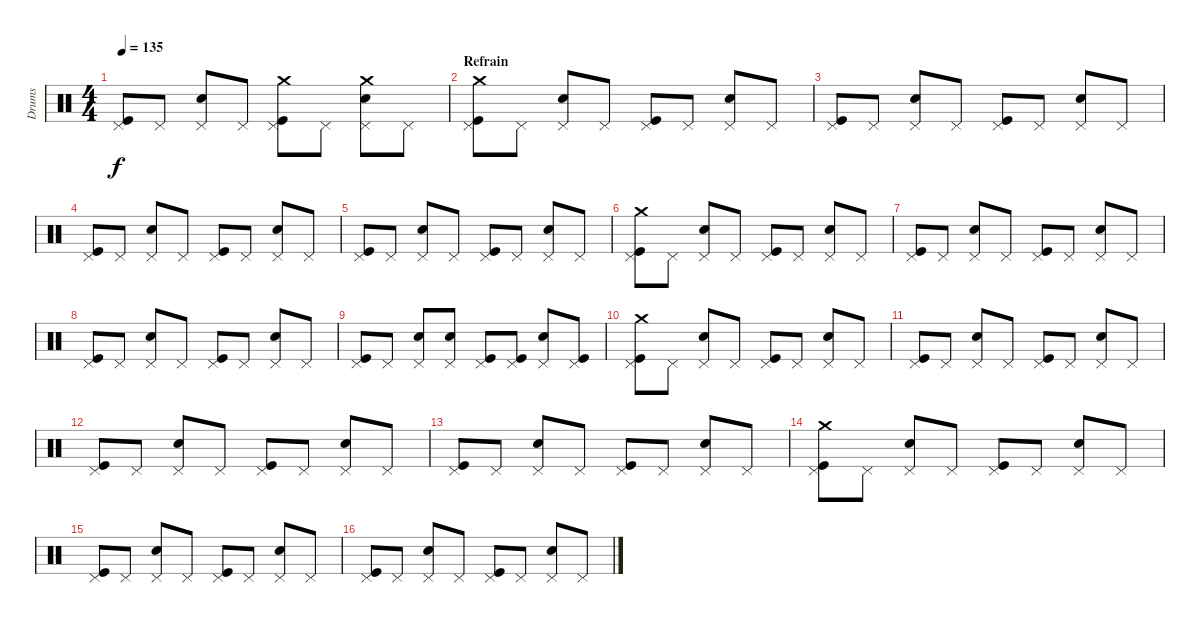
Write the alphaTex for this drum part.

\track ("Drums" "Drums") {instrument percussion}
\staff {score}
\articulation defaults
\ts (4 4)
\tempo 135
\clef neutral
\ks c
("Pedal Hi-Hat (hit)" "Kick (hit)").8{dy f} "Pedal Hi-Hat (hit)".8 ("Pedal Hi-Hat (hit)" "Electric Snare (hit)").8 "Pedal Hi-Hat (hit)".8 ("Pedal Hi-Hat (hit)" "Kick (hit)" "Crash medium (hit)").8 "Pedal Hi-Hat (hit)".8 ("Pedal Hi-Hat (hit)" "Electric Snare (hit)" "Crash medium (hit)").8 "Pedal Hi-Hat (hit)".8 |
\section ("" "Refrain")
("Pedal Hi-Hat (hit)" "Kick (hit)" "Crash medium (hit)").8 "Pedal Hi-Hat (hit)".8 ("Pedal Hi-Hat (hit)" "Electric Snare (hit)").8 "Pedal Hi-Hat (hit)".8 ("Pedal Hi-Hat (hit)" "Kick (hit)").8 "Pedal Hi-Hat (hit)".8 ("Pedal Hi-Hat (hit)" "Electric Snare (hit)").8 "Pedal Hi-Hat (hit)".8 |
("Pedal Hi-Hat (hit)" "Kick (hit)").8 "Pedal Hi-Hat (hit)".8 ("Pedal Hi-Hat (hit)" "Electric Snare (hit)").8 "Pedal Hi-Hat (hit)".8 ("Pedal Hi-Hat (hit)" "Kick (hit)").8 "Pedal Hi-Hat (hit)".8 ("Pedal Hi-Hat (hit)" "Electric Snare (hit)").8 "Pedal Hi-Hat (hit)".8 |
("Pedal Hi-Hat (hit)" "Kick (hit)").8 "Pedal Hi-Hat (hit)".8 ("Pedal Hi-Hat (hit)" "Electric Snare (hit)").8 "Pedal Hi-Hat (hit)".8 ("Pedal Hi-Hat (hit)" "Kick (hit)").8 "Pedal Hi-Hat (hit)".8 ("Pedal Hi-Hat (hit)" "Electric Snare (hit)").8 "Pedal Hi-Hat (hit)".8 |
("Pedal Hi-Hat (hit)" "Kick (hit)").8 "Pedal Hi-Hat (hit)".8 ("Pedal Hi-Hat (hit)" "Electric Snare (hit)").8 "Pedal Hi-Hat (hit)".8 ("Pedal Hi-Hat (hit)" "Kick (hit)").8 "Pedal Hi-Hat (hit)".8 ("Pedal Hi-Hat (hit)" "Electric Snare (hit)").8 "Pedal Hi-Hat (hit)".8 |
("Pedal Hi-Hat (hit)" "Kick (hit)" "Crash medium (hit)").8 "Pedal Hi-Hat (hit)".8 ("Pedal Hi-Hat (hit)" "Electric Snare (hit)").8 "Pedal Hi-Hat (hit)".8 ("Pedal Hi-Hat (hit)" "Kick (hit)").8 "Pedal Hi-Hat (hit)".8 ("Pedal Hi-Hat (hit)" "Electric Snare (hit)").8 "Pedal Hi-Hat (hit)".8 |
("Pedal Hi-Hat (hit)" "Kick (hit)").8 "Pedal Hi-Hat (hit)".8 ("Pedal Hi-Hat (hit)" "Electric Snare (hit)").8 "Pedal Hi-Hat (hit)".8 ("Pedal Hi-Hat (hit)" "Kick (hit)").8 "Pedal Hi-Hat (hit)".8 ("Pedal Hi-Hat (hit)" "Electric Snare (hit)").8 "Pedal Hi-Hat (hit)".8 |
("Pedal Hi-Hat (hit)" "Kick (hit)").8 "Pedal Hi-Hat (hit)".8 ("Pedal Hi-Hat (hit)" "Electric Snare (hit)").8 "Pedal Hi-Hat (hit)".8 ("Pedal Hi-Hat (hit)" "Kick (hit)").8 "Pedal Hi-Hat (hit)".8 ("Pedal Hi-Hat (hit)" "Electric Snare (hit)").8 "Pedal Hi-Hat (hit)".8 |
("Pedal Hi-Hat (hit)" "Kick (hit)").8 "Pedal Hi-Hat (hit)".8 ("Pedal Hi-Hat (hit)" "Electric Snare (hit)").8 ("Pedal Hi-Hat (hit)" "Electric Snare (hit)").8 ("Pedal Hi-Hat (hit)" "Kick (hit)").8 ("Pedal Hi-Hat (hit)" "Kick (hit)").8 ("Pedal Hi-Hat (hit)" "Electric Snare (hit)").8 ("Pedal Hi-Hat (hit)" "Kick (hit)").8 |
("Pedal Hi-Hat (hit)" "Kick (hit)" "Crash medium (hit)").8 "Pedal Hi-Hat (hit)".8 ("Pedal Hi-Hat (hit)" "Electric Snare (hit)").8 "Pedal Hi-Hat (hit)".8 ("Pedal Hi-Hat (hit)" "Kick (hit)").8 "Pedal Hi-Hat (hit)".8 ("Pedal Hi-Hat (hit)" "Electric Snare (hit)").8 "Pedal Hi-Hat (hit)".8 |
("Pedal Hi-Hat (hit)" "Kick (hit)").8 "Pedal Hi-Hat (hit)".8 ("Pedal Hi-Hat (hit)" "Electric Snare (hit)").8 "Pedal Hi-Hat (hit)".8 ("Pedal Hi-Hat (hit)" "Kick (hit)").8 "Pedal Hi-Hat (hit)".8 ("Pedal Hi-Hat (hit)" "Electric Snare (hit)").8 "Pedal Hi-Hat (hit)".8 |
("Pedal Hi-Hat (hit)" "Kick (hit)").8 "Pedal Hi-Hat (hit)".8 ("Pedal Hi-Hat (hit)" "Electric Snare (hit)").8 "Pedal Hi-Hat (hit)".8 ("Pedal Hi-Hat (hit)" "Kick (hit)").8 "Pedal Hi-Hat (hit)".8 ("Pedal Hi-Hat (hit)" "Electric Snare (hit)").8 "Pedal Hi-Hat (hit)".8 |
("Pedal Hi-Hat (hit)" "Kick (hit)").8 "Pedal Hi-Hat (hit)".8 ("Pedal Hi-Hat (hit)" "Electric Snare (hit)").8 "Pedal Hi-Hat (hit)".8 ("Pedal Hi-Hat (hit)" "Kick (hit)").8 "Pedal Hi-Hat (hit)".8 ("Pedal Hi-Hat (hit)" "Electric Snare (hit)").8 "Pedal Hi-Hat (hit)".8 |
("Pedal Hi-Hat (hit)" "Kick (hit)" "Crash medium (hit)").8 "Pedal Hi-Hat (hit)".8 ("Pedal Hi-Hat (hit)" "Electric Snare (hit)").8 "Pedal Hi-Hat (hit)".8 ("Pedal Hi-Hat (hit)" "Kick (hit)").8 "Pedal Hi-Hat (hit)".8 ("Pedal Hi-Hat (hit)" "Electric Snare (hit)").8 "Pedal Hi-Hat (hit)".8 |
("Pedal Hi-Hat (hit)" "Kick (hit)").8 "Pedal Hi-Hat (hit)".8 ("Pedal Hi-Hat (hit)" "Electric Snare (hit)").8 "Pedal Hi-Hat (hit)".8 ("Pedal Hi-Hat (hit)" "Kick (hit)").8 "Pedal Hi-Hat (hit)".8 ("Pedal Hi-Hat (hit)" "Electric Snare (hit)").8 "Pedal Hi-Hat (hit)".8 |
("Pedal Hi-Hat (hit)" "Kick (hit)").8 "Pedal Hi-Hat (hit)".8 ("Pedal Hi-Hat (hit)" "Electric Snare (hit)").8 "Pedal Hi-Hat (hit)".8 ("Pedal Hi-Hat (hit)" "Kick (hit)").8 "Pedal Hi-Hat (hit)".8 ("Pedal Hi-Hat (hit)" "Electric Snare (hit)").8 "Pedal Hi-Hat (hit)".8
